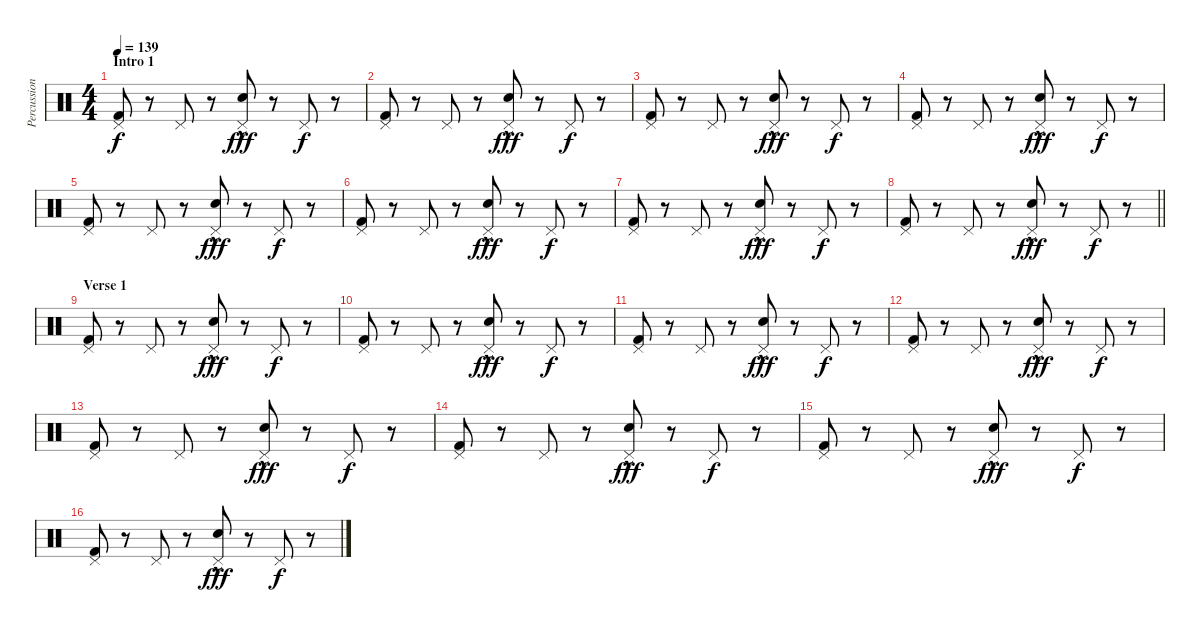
\track ("Percussion" "Percussion") {instrument percussion}
\staff {score}
\articulation defaults
\ts (4 4)
\section ("" "Intro 1")
\tempo 139
\clef neutral
\ks c
("Kick (hit) 2" "Pedal Hi-Hat (hit)").8{dy f} r.8 "Pedal Hi-Hat (hit)".8 r.8 ("Electric Snare (hit)"{hac} "Pedal Hi-Hat (hit)").8{dy fff} r.8 "Pedal Hi-Hat (hit)".8{dy f} r.8 |
("Kick (hit) 2" "Pedal Hi-Hat (hit)").8 r.8 "Pedal Hi-Hat (hit)".8 r.8 ("Electric Snare (hit)"{hac} "Pedal Hi-Hat (hit)").8{dy fff} r.8 "Pedal Hi-Hat (hit)".8{dy f} r.8 |
("Kick (hit) 2" "Pedal Hi-Hat (hit)").8 r.8 "Pedal Hi-Hat (hit)".8 r.8 ("Electric Snare (hit)"{hac} "Pedal Hi-Hat (hit)").8{dy fff} r.8 "Pedal Hi-Hat (hit)".8{dy f} r.8 |
("Kick (hit) 2" "Pedal Hi-Hat (hit)").8 r.8 "Pedal Hi-Hat (hit)".8 r.8 ("Electric Snare (hit)"{hac} "Pedal Hi-Hat (hit)").8{dy fff} r.8 "Pedal Hi-Hat (hit)".8{dy f} r.8 |
("Kick (hit) 2" "Pedal Hi-Hat (hit)").8 r.8 "Pedal Hi-Hat (hit)".8 r.8 ("Electric Snare (hit)"{hac} "Pedal Hi-Hat (hit)").8{dy fff} r.8 "Pedal Hi-Hat (hit)".8{dy f} r.8 |
("Kick (hit) 2" "Pedal Hi-Hat (hit)").8 r.8 "Pedal Hi-Hat (hit)".8 r.8 ("Electric Snare (hit)"{hac} "Pedal Hi-Hat (hit)").8{dy fff} r.8 "Pedal Hi-Hat (hit)".8{dy f} r.8 |
("Kick (hit) 2" "Pedal Hi-Hat (hit)").8 r.8 "Pedal Hi-Hat (hit)".8 r.8 ("Electric Snare (hit)"{hac} "Pedal Hi-Hat (hit)").8{dy fff} r.8 "Pedal Hi-Hat (hit)".8{dy f} r.8 |
\barLineRight lightlight
("Kick (hit) 2" "Pedal Hi-Hat (hit)").8 r.8 "Pedal Hi-Hat (hit)".8 r.8 ("Electric Snare (hit)"{hac} "Pedal Hi-Hat (hit)").8{dy fff} r.8 "Pedal Hi-Hat (hit)".8{dy f} r.8 |
\section ("" "Verse 1")
("Kick (hit) 2" "Pedal Hi-Hat (hit)").8 r.8 "Pedal Hi-Hat (hit)".8 r.8 ("Electric Snare (hit)"{hac} "Pedal Hi-Hat (hit)").8{dy fff} r.8 "Pedal Hi-Hat (hit)".8{dy f} r.8 |
("Kick (hit) 2" "Pedal Hi-Hat (hit)").8 r.8 "Pedal Hi-Hat (hit)".8 r.8 ("Electric Snare (hit)"{hac} "Pedal Hi-Hat (hit)").8{dy fff} r.8 "Pedal Hi-Hat (hit)".8{dy f} r.8 |
("Kick (hit) 2" "Pedal Hi-Hat (hit)").8 r.8 "Pedal Hi-Hat (hit)".8 r.8 ("Electric Snare (hit)"{hac} "Pedal Hi-Hat (hit)").8{dy fff} r.8 "Pedal Hi-Hat (hit)".8{dy f} r.8 |
("Kick (hit) 2" "Pedal Hi-Hat (hit)").8 r.8 "Pedal Hi-Hat (hit)".8 r.8 ("Electric Snare (hit)"{hac} "Pedal Hi-Hat (hit)").8{dy fff} r.8 "Pedal Hi-Hat (hit)".8{dy f} r.8 |
("Kick (hit) 2" "Pedal Hi-Hat (hit)").8 r.8 "Pedal Hi-Hat (hit)".8 r.8 ("Electric Snare (hit)"{hac} "Pedal Hi-Hat (hit)").8{dy fff} r.8 "Pedal Hi-Hat (hit)".8{dy f} r.8 |
("Kick (hit) 2" "Pedal Hi-Hat (hit)").8 r.8 "Pedal Hi-Hat (hit)".8 r.8 ("Electric Snare (hit)"{hac} "Pedal Hi-Hat (hit)").8{dy fff} r.8 "Pedal Hi-Hat (hit)".8{dy f} r.8 |
("Kick (hit) 2" "Pedal Hi-Hat (hit)").8 r.8 "Pedal Hi-Hat (hit)".8 r.8 ("Electric Snare (hit)"{hac} "Pedal Hi-Hat (hit)").8{dy fff} r.8 "Pedal Hi-Hat (hit)".8{dy f} r.8 |
("Kick (hit) 2" "Pedal Hi-Hat (hit)").8 r.8 "Pedal Hi-Hat (hit)".8 r.8 ("Electric Snare (hit)"{hac} "Pedal Hi-Hat (hit)").8{dy fff} r.8 "Pedal Hi-Hat (hit)".8{dy f} r.8
